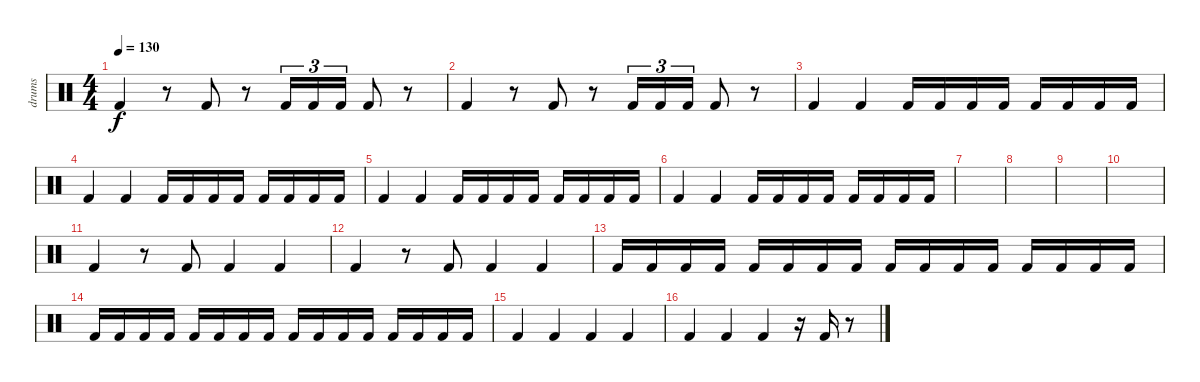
\track ("drums" "drums") {instrument percussion}
\staff {score}
\articulation defaults
\ts (4 4)
\tempo 130
\clef neutral
\ks c "Kick (hit) 2".4{dy f}
r.8 "Kick (hit) 2".8 r.8 "Kick (hit) 2".16{tu (3 2)} "Kick (hit) 2".16{tu (3 2)} "Kick (hit) 2".16{tu (3 2)} "Kick (hit) 2".8 r.8 |
"Kick (hit) 2".4 r.8 "Kick (hit) 2".8 r.8 "Kick (hit) 2".16{tu (3 2)} "Kick (hit) 2".16{tu (3 2)} "Kick (hit) 2".16{tu (3 2)} "Kick (hit) 2".8 r.8 |
"Kick (hit) 2".4 "Kick (hit) 2".4 "Kick (hit) 2".16 "Kick (hit) 2".16 "Kick (hit) 2".16 "Kick (hit) 2".16 "Kick (hit) 2".16 "Kick (hit) 2".16 "Kick (hit) 2".16 "Kick (hit) 2".16 |
"Kick (hit) 2".4 "Kick (hit) 2".4 "Kick (hit) 2".16 "Kick (hit) 2".16 "Kick (hit) 2".16 "Kick (hit) 2".16 "Kick (hit) 2".16 "Kick (hit) 2".16 "Kick (hit) 2".16 "Kick (hit) 2".16 |
"Kick (hit) 2".4 "Kick (hit) 2".4 "Kick (hit) 2".16 "Kick (hit) 2".16 "Kick (hit) 2".16 "Kick (hit) 2".16 "Kick (hit) 2".16 "Kick (hit) 2".16 "Kick (hit) 2".16 "Kick (hit) 2".16 |
"Kick (hit) 2".4 "Kick (hit) 2".4 "Kick (hit) 2".16 "Kick (hit) 2".16 "Kick (hit) 2".16 "Kick (hit) 2".16 "Kick (hit) 2".16 "Kick (hit) 2".16 "Kick (hit) 2".16 "Kick (hit) 2".16 |
|
|
|
|
"Kick (hit) 2".4 r.8 "Kick (hit) 2".8 "Kick (hit) 2".4 "Kick (hit) 2".4 |
"Kick (hit) 2".4 r.8 "Kick (hit) 2".8 "Kick (hit) 2".4 "Kick (hit) 2".4 |
"Kick (hit) 2".16 "Kick (hit) 2".16 "Kick (hit) 2".16 "Kick (hit) 2".16 "Kick (hit) 2".16 "Kick (hit) 2".16 "Kick (hit) 2".16 "Kick (hit) 2".16 "Kick (hit) 2".16 "Kick (hit) 2".16 "Kick (hit) 2".16 "Kick (hit) 2".16 "Kick (hit) 2".16 "Kick (hit) 2".16 "Kick (hit) 2".16 "Kick (hit) 2".16 |
"Kick (hit) 2".16 "Kick (hit) 2".16 "Kick (hit) 2".16 "Kick (hit) 2".16 "Kick (hit) 2".16 "Kick (hit) 2".16 "Kick (hit) 2".16 "Kick (hit) 2".16 "Kick (hit) 2".16 "Kick (hit) 2".16 "Kick (hit) 2".16 "Kick (hit) 2".16 "Kick (hit) 2".16 "Kick (hit) 2".16 "Kick (hit) 2".16 "Kick (hit) 2".16 |
"Kick (hit) 2".4 "Kick (hit) 2".4 "Kick (hit) 2".4 "Kick (hit) 2".4 |
"Kick (hit) 2".4 "Kick (hit) 2".4 "Kick (hit) 2".4 r.16 "Kick (hit) 2".16 r.8
